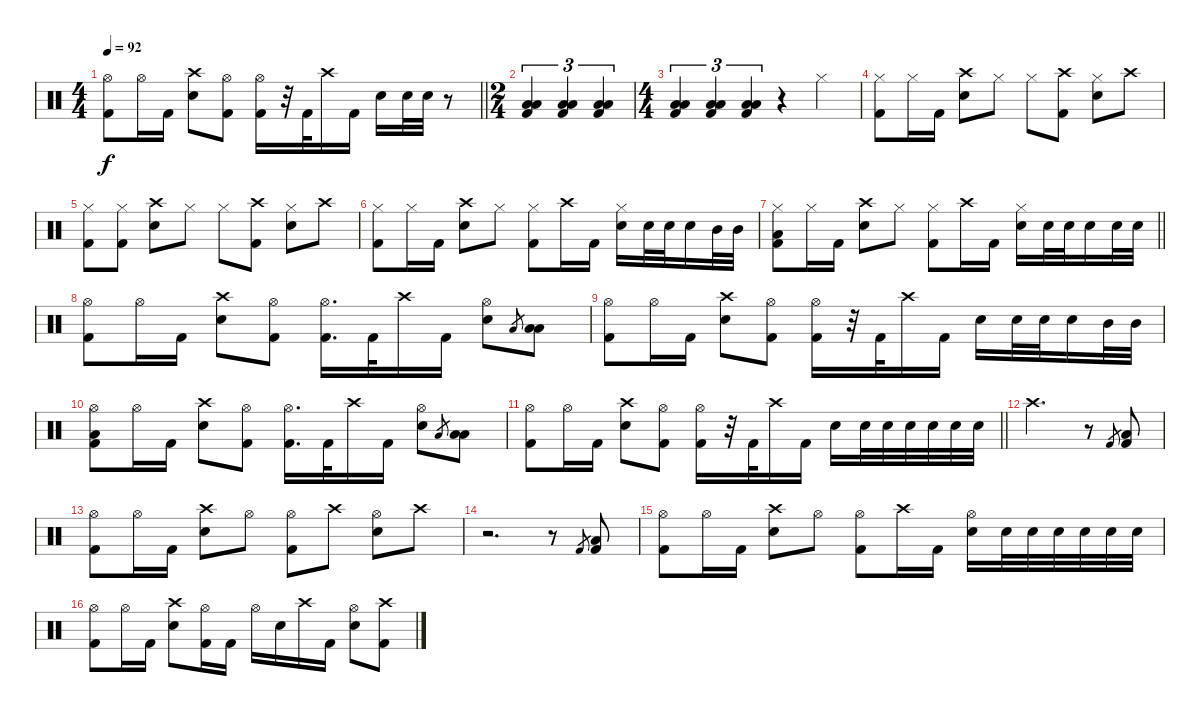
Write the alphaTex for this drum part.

\track "" {instrument percussion}
\staff {score}
\articulation defaults
\ts (4 4)
\tempo 92
\clef neutral
\barLineRight lightlight
\ks c
("Hi-Hat (open)" "Kick (hit) 2").8{dy f} "Hi-Hat (open)".16 "Kick (hit) 2".16 ("Crash high (hit)" "Electric Snare (hit)").8 ("Hi-Hat (open)" "Kick (hit) 2").8 ("Hi-Hat (open)" "Kick (hit) 2").16 r.32 "Kick (hit) 2".32 "Crash high (hit)".16 "Kick (hit) 2".16 "Electric Snare (hit)".16 "Electric Snare (hit)".32 "Electric Snare (hit)".32 r.8 |
\ts (2 4)
("Low Tom (hit)" "Low Tom (hit)" "Kick (hit) 2").4{tu (3 2)} ("Low Tom (hit)" "Low Tom (hit)" "Kick (hit) 2").4{tu (3 2)} ("Low Tom (hit)" "Low Tom (hit)" "Kick (hit) 2").4{tu (3 2)} |
\ts (4 4)
("Low Tom (hit)" "Low Tom (hit)" "Kick (hit) 2").4{tu (3 2)} ("Low Tom (hit)" "Low Tom (hit)" "Kick (hit) 2").4{tu (3 2)} ("Low Tom (hit)" "Low Tom (hit)" "Kick (hit) 2").4{tu (3 2)} r.4 "Hi-Hat (closed)".4 |
("Hi-Hat (closed)" "Kick (hit) 2").8 "Hi-Hat (closed)".16 "Kick (hit) 2".16 ("Crash high (hit)" "Electric Snare (hit)").8 "Hi-Hat (closed)".8 "Hi-Hat (closed)".8 ("Crash high (hit)" "Kick (hit) 2").8 ("Hi-Hat (closed)" "Electric Snare (hit)").8 "Crash high (hit)".8 |
("Hi-Hat (closed)" "Kick (hit) 2").8 ("Hi-Hat (closed)" "Kick (hit) 2").8 ("Crash high (hit)" "Electric Snare (hit)").8 "Hi-Hat (closed)".8 "Hi-Hat (closed)".8 ("Crash high (hit)" "Kick (hit) 2").8 ("Hi-Hat (closed)" "Electric Snare (hit)").8 "Crash high (hit)".8 |
("Hi-Hat (closed)" "Kick (hit) 2").8 "Hi-Hat (closed)".16 "Kick (hit) 2".16 ("Crash high (hit)" "Electric Snare (hit)").8 "Hi-Hat (closed)".8 ("Hi-Hat (closed)" "Kick (hit) 2").8 "Crash high (hit)".16 "Kick (hit) 2".16 ("Hi-Hat (closed)" "Electric Snare (hit)").16 "Electric Snare (hit)".32 "Electric Snare (hit)".32 "Electric Snare (hit)".16 "Mid Tom (hit)".32 "Mid Tom (hit)".32 |
\barLineRight lightlight
("Hi-Hat (closed)" "Low Tom (hit)" "Kick (hit) 2").8 "Hi-Hat (closed)".16 "Kick (hit) 2".16 ("Crash high (hit)" "Electric Snare (hit)").8 "Hi-Hat (closed)".8 ("Hi-Hat (closed)" "Kick (hit) 2").8 "Crash high (hit)".16 "Kick (hit) 2".16 ("Hi-Hat (closed)" "Electric Snare (hit)").16 "Electric Snare (hit)".32 "Electric Snare (hit)".32 "Electric Snare (hit)".16 "Electric Snare (hit)".32 "Electric Snare (hit)".32 |
("Hi-Hat (open)" "Kick (hit) 2").8 "Hi-Hat (open)".16 "Kick (hit) 2".16 ("Crash high (hit)" "Electric Snare (hit)").8 ("Hi-Hat (open)" "Kick (hit) 2").8 ("Hi-Hat (open)" "Kick (hit) 2").16{d} "Kick (hit) 2".32 "Crash high (hit)".16 "Kick (hit) 2".16 ("Hi-Hat (open)" "Electric Snare (hit)").8 "Low Tom (hit)".8{gr} ("Low Tom (hit)" "Low Tom (hit)").8 |
("Hi-Hat (open)" "Kick (hit) 2").8 "Hi-Hat (open)".16 "Kick (hit) 2".16 ("Crash high (hit)" "Electric Snare (hit)").8 ("Hi-Hat (open)" "Kick (hit) 2").8 ("Hi-Hat (open)" "Kick (hit) 2").16 r.32 "Kick (hit) 2".32 "Crash high (hit)".16 "Kick (hit) 2".16 "Electric Snare (hit)".16 "Electric Snare (hit)".32 "Electric Snare (hit)".32 "Electric Snare (hit)".16 "Mid Tom (hit)".32 "Mid Tom (hit)".32 |
("Hi-Hat (open)" "Low Tom (hit)" "Kick (hit) 2").8 "Hi-Hat (open)".16 "Kick (hit) 2".16 ("Crash high (hit)" "Electric Snare (hit)").8 ("Hi-Hat (open)" "Kick (hit) 2").8 ("Hi-Hat (open)" "Kick (hit) 2").16{d} "Kick (hit) 2".32 "Crash high (hit)".16 "Kick (hit) 2".16 ("Hi-Hat (open)" "Electric Snare (hit)").8 "Low Tom (hit)".8{gr} ("Low Tom (hit)" "Low Tom (hit)").8 |
\barLineRight lightlight
("Hi-Hat (open)" "Kick (hit) 2").8 "Hi-Hat (open)".16 "Kick (hit) 2".16 ("Crash high (hit)" "Electric Snare (hit)").8 ("Hi-Hat (open)" "Kick (hit) 2").8 ("Hi-Hat (open)" "Kick (hit) 2").16 r.32 "Kick (hit) 2".32 "Crash high (hit)".16 "Kick (hit) 2".16 "Electric Snare (hit)".16 "Electric Snare (hit)".32 "Electric Snare (hit)".32 "Electric Snare (hit)".32 "Electric Snare (hit)".32 "Electric Snare (hit)".32 "Electric Snare (hit)".32 |
"Crash high (hit)".2{d} r.8 "Kick (hit) 2".8{gr} ("Low Tom (hit)" "Kick (hit) 2").8 |
("Hi-Hat (open)" "Kick (hit) 2").8 "Hi-Hat (open)".16 "Kick (hit) 2".16 ("Crash high (hit)" "Electric Snare (hit)").8 "Hi-Hat (open)".8 ("Hi-Hat (open)" "Kick (hit) 2").8 "Crash high (hit)".8 ("Hi-Hat (open)" "Electric Snare (hit)").8 "Crash high (hit)".8 |
r.2{d} r.8 "Kick (hit) 2".8{gr} ("Low Tom (hit)" "Kick (hit) 2").8 |
("Hi-Hat (open)" "Kick (hit) 2").8 "Hi-Hat (open)".16 "Kick (hit) 2".16 ("Crash high (hit)" "Electric Snare (hit)").8 "Hi-Hat (open)".8 ("Hi-Hat (open)" "Kick (hit) 2").8 "Crash high (hit)".16 "Kick (hit) 2".16 ("Hi-Hat (open)" "Electric Snare (hit)").16 "Electric Snare (hit)".32 "Electric Snare (hit)".32 "Electric Snare (hit)".32 "Electric Snare (hit)".32 "Electric Snare (hit)".32 "Electric Snare (hit)".32 |
("Hi-Hat (open)" "Kick (hit) 2").8 "Hi-Hat (open)".16 "Kick (hit) 2".16 ("Crash high (hit)" "Electric Snare (hit)").8 ("Hi-Hat (open)" "Kick (hit) 2").16 "Kick (hit) 2".16 "Hi-Hat (open)".16 "Electric Snare (hit)".16 "Crash high (hit)".16 "Kick (hit) 2".16 ("Hi-Hat (open)" "Electric Snare (hit)").8 ("Crash high (hit)" "Kick (hit) 2").8
